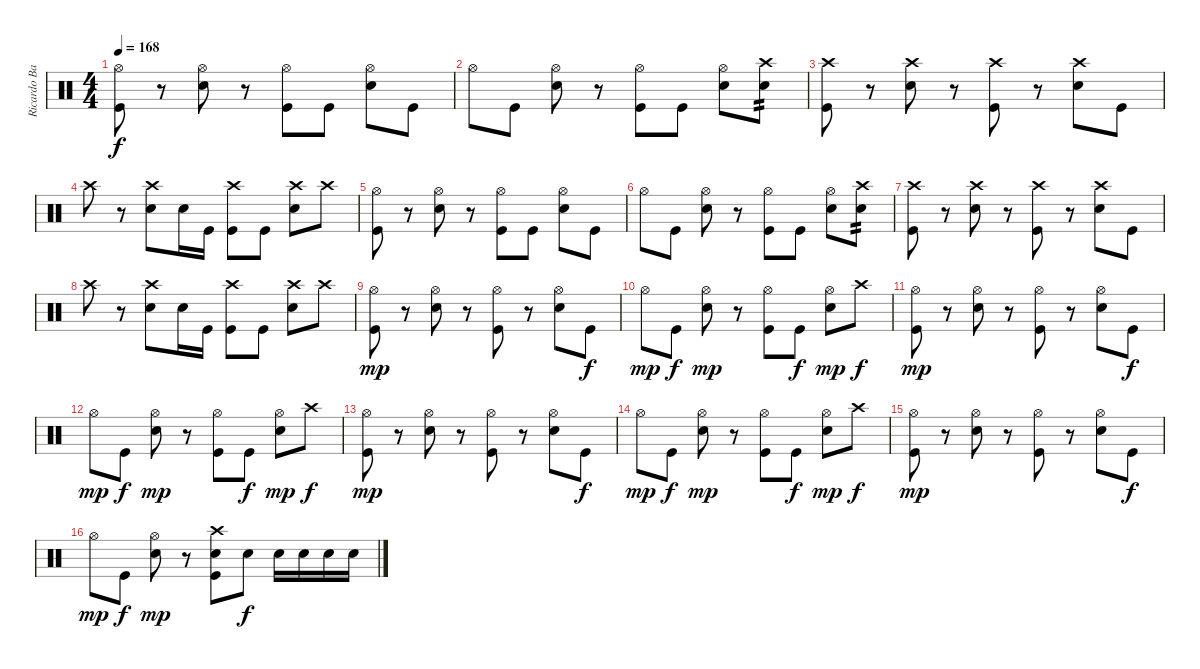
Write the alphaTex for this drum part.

\track ("Ricardo Barrenechea" "Ricardo Ba") {instrument percussion}
\staff {score}
\articulation defaults
\ts (4 4)
\tempo 168
\clef neutral
\ks c
("Hi-Hat (open)" "Kick (hit)").8{dy f} r.8 ("Hi-Hat (open)" "Snare (hit) 2").8 r.8 ("Hi-Hat (open)" "Kick (hit)").8 "Kick (hit)".8 ("Hi-Hat (open)" "Snare (hit) 2").8 "Kick (hit)".8 |
"Hi-Hat (open)".8 "Kick (hit)".8 ("Hi-Hat (open)" "Snare (hit) 2").8 r.8 ("Hi-Hat (open)" "Kick (hit)").8 "Kick (hit)".8 ("Hi-Hat (open)" "Snare (hit) 2").8 ("Crash high (hit)" "Snare (hit) 2").8{tp 2} |
("Crash high (hit)" "Kick (hit)").8 r.8 ("Crash high (hit)" "Snare (hit) 2").8 r.8 ("Crash high (hit)" "Kick (hit)").8 r.8 ("Crash high (hit)" "Snare (hit) 2").8 "Kick (hit)".8 |
"Crash high (hit)".8 r.8 ("Crash high (hit)" "Snare (hit) 2").8 "Snare (hit) 2".16 "Kick (hit)".16 ("Crash high (hit)" "Kick (hit)").8 "Kick (hit)".8 ("Crash high (hit)" "Snare (hit) 2").8 "Crash high (hit)".8 |
("Hi-Hat (open)" "Kick (hit)").8 r.8 ("Hi-Hat (open)" "Snare (hit) 2").8 r.8 ("Hi-Hat (open)" "Kick (hit)").8 "Kick (hit)".8 ("Hi-Hat (open)" "Snare (hit) 2").8 "Kick (hit)".8 |
"Hi-Hat (open)".8 "Kick (hit)".8 ("Hi-Hat (open)" "Snare (hit) 2").8 r.8 ("Hi-Hat (open)" "Kick (hit)").8 "Kick (hit)".8 ("Hi-Hat (open)" "Snare (hit) 2").8 ("Crash high (hit)" "Snare (hit) 2").8{tp 2} |
("Crash high (hit)" "Kick (hit)").8 r.8 ("Crash high (hit)" "Snare (hit) 2").8 r.8 ("Crash high (hit)" "Kick (hit)").8 r.8 ("Crash high (hit)" "Snare (hit) 2").8 "Kick (hit)".8 |
"Crash high (hit)".8 r.8 ("Crash high (hit)" "Snare (hit) 2").8 "Snare (hit) 2".16 "Kick (hit)".16 ("Crash high (hit)" "Kick (hit)").8 "Kick (hit)".8 ("Crash high (hit)" "Snare (hit) 2").8 "Crash high (hit)".8 |
("Hi-Hat (open)" "Kick (hit)").8{dy mp} r.8 ("Hi-Hat (open)" "Snare (hit) 2").8 r.8 ("Hi-Hat (open)" "Kick (hit)").8 r.8 ("Hi-Hat (open)" "Snare (hit) 2").8 "Kick (hit)".8{dy f} |
"Hi-Hat (open)".8{dy mp} "Kick (hit)".8{dy f} ("Hi-Hat (open)" "Snare (hit) 2").8{dy mp} r.8 ("Hi-Hat (open)" "Kick (hit)").8 "Kick (hit)".8{dy f} ("Hi-Hat (open)" "Snare (hit) 2").8{dy mp} "Crash high (hit)".8{dy f} |
("Hi-Hat (open)" "Kick (hit)").8{dy mp} r.8 ("Hi-Hat (open)" "Snare (hit) 2").8 r.8 ("Hi-Hat (open)" "Kick (hit)").8 r.8 ("Hi-Hat (open)" "Snare (hit) 2").8 "Kick (hit)".8{dy f} |
"Hi-Hat (open)".8{dy mp} "Kick (hit)".8{dy f} ("Hi-Hat (open)" "Snare (hit) 2").8{dy mp} r.8 ("Hi-Hat (open)" "Kick (hit)").8 "Kick (hit)".8{dy f} ("Hi-Hat (open)" "Snare (hit) 2").8{dy mp} "Crash high (hit)".8{dy f} |
("Hi-Hat (open)" "Kick (hit)").8{dy mp} r.8 ("Hi-Hat (open)" "Snare (hit) 2").8 r.8 ("Hi-Hat (open)" "Kick (hit)").8 r.8 ("Hi-Hat (open)" "Snare (hit) 2").8 "Kick (hit)".8{dy f} |
"Hi-Hat (open)".8{dy mp} "Kick (hit)".8{dy f} ("Hi-Hat (open)" "Snare (hit) 2").8{dy mp} r.8 ("Hi-Hat (open)" "Kick (hit)").8 "Kick (hit)".8{dy f} ("Hi-Hat (open)" "Snare (hit) 2").8{dy mp} "Crash high (hit)".8{dy f} |
("Hi-Hat (open)" "Kick (hit)").8{dy mp} r.8 ("Hi-Hat (open)" "Snare (hit) 2").8 r.8 ("Hi-Hat (open)" "Kick (hit)").8 r.8 ("Hi-Hat (open)" "Snare (hit) 2").8 "Kick (hit)".8{dy f} |
"Hi-Hat (open)".8{dy mp} "Kick (hit)".8{dy f} ("Hi-Hat (open)" "Snare (hit) 2").8{dy mp} r.8 ("Crash high (hit)" "Snare (hit) 2" "Kick (hit)").8 "Snare (hit) 2".8{dy f} "Snare (hit) 2".16 "Snare (hit) 2".16 "Snare (hit) 2".16 "Snare (hit) 2".16
